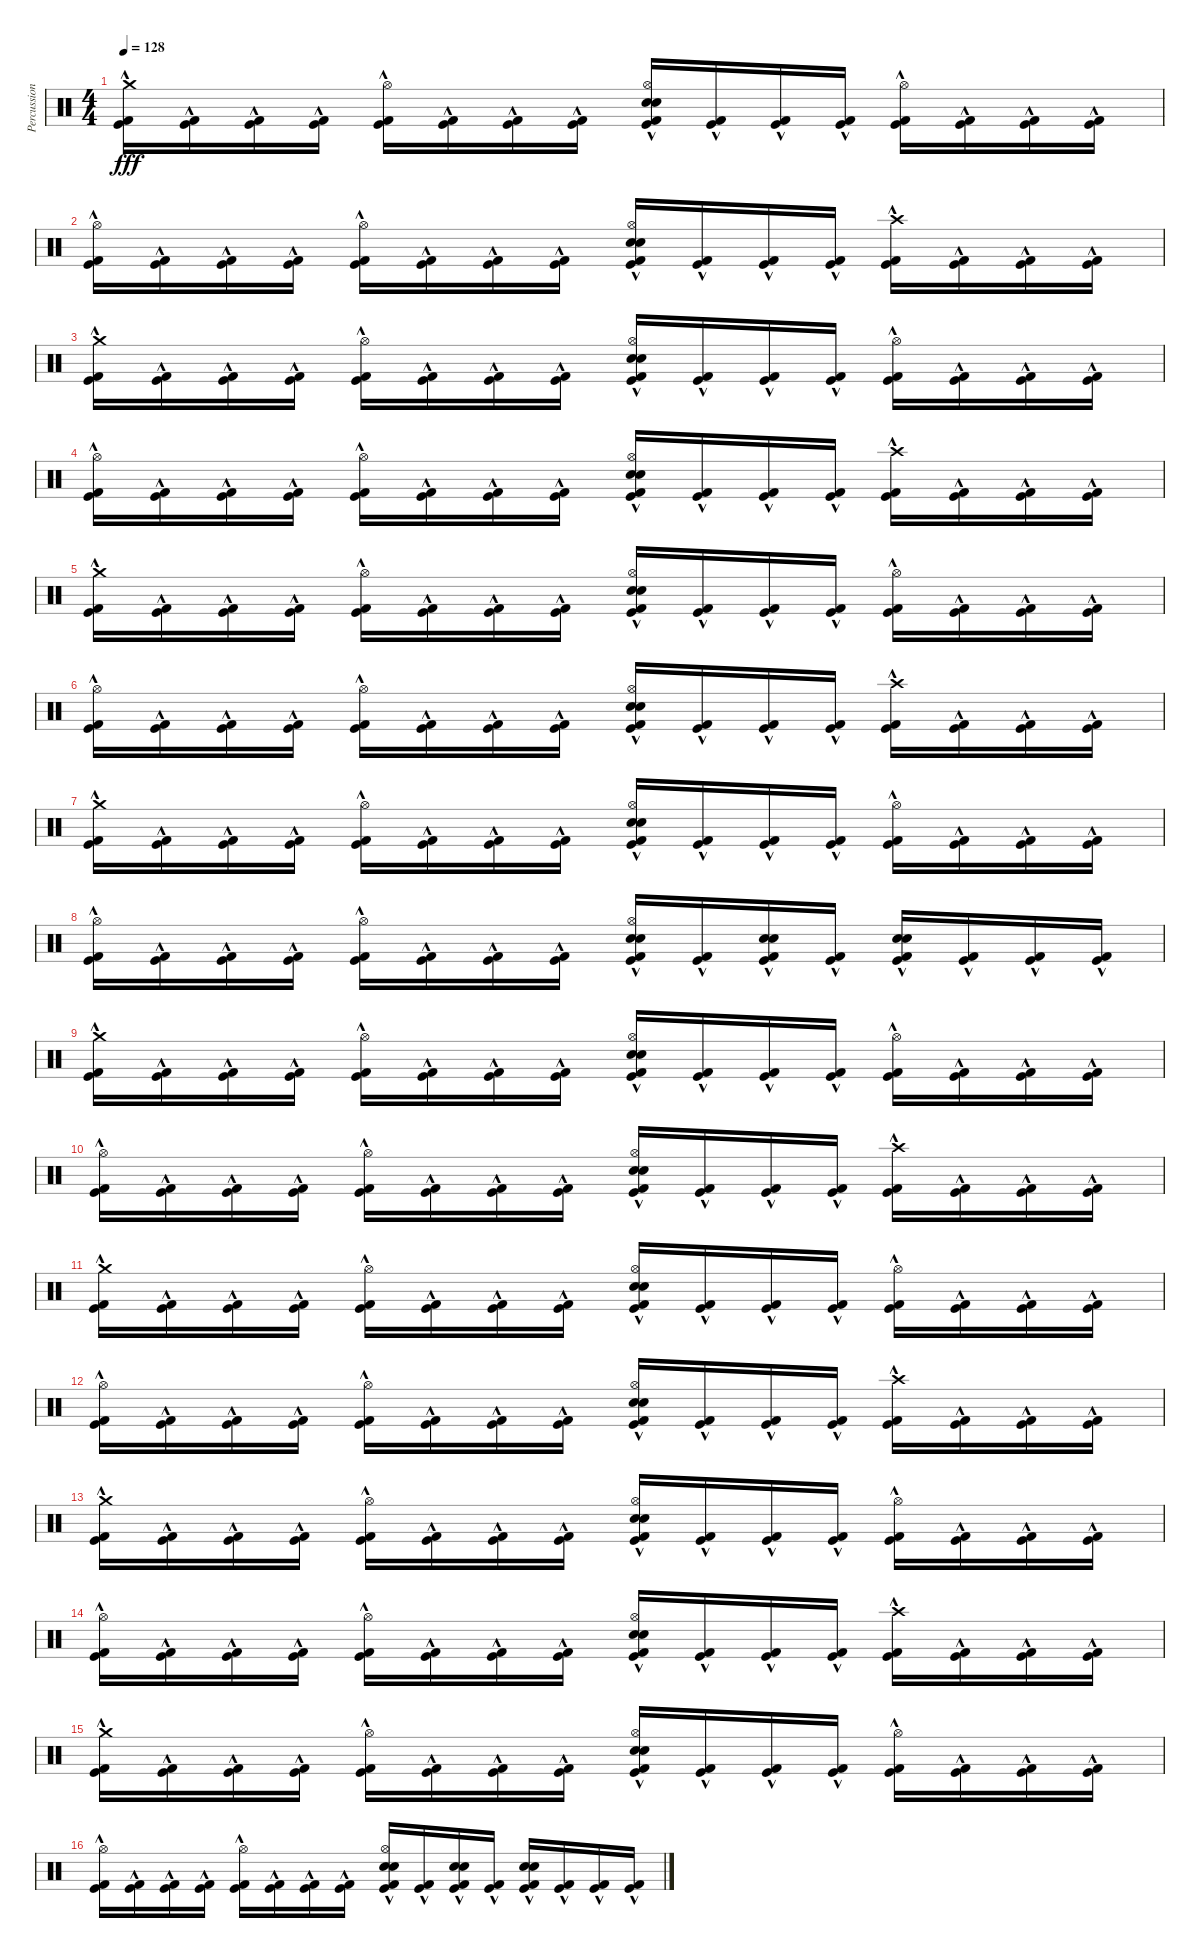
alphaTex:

\track ("Percussion" "Percussion") {instrument percussion}
\staff {score}
\articulation defaults
\ts (4 4)
\tempo 128
\clef neutral
\ks c
("Crash medium (hit)"{hac} "Kick (hit)"{hac} "Kick (hit) 2"{hac}).16{dy fff} ("Kick (hit)"{hac} "Kick (hit) 2"{hac}).16 ("Kick (hit)"{hac} "Kick (hit) 2"{hac}).16 ("Kick (hit)"{hac} "Kick (hit) 2"{hac}).16 ("Hi-Hat (open)"{hac} "Kick (hit)"{hac} "Kick (hit) 2"{hac}).16 ("Kick (hit)"{hac} "Kick (hit) 2"{hac}).16 ("Kick (hit)"{hac} "Kick (hit) 2"{hac}).16 ("Kick (hit)"{hac} "Kick (hit) 2"{hac}).16 ("Hi-Hat (open)"{hac} "Electric Snare (hit)"{hac} "Snare (hit) 2"{hac} "Kick (hit)"{hac} "Kick (hit) 2"{hac}).16 ("Kick (hit)"{hac} "Kick (hit) 2"{hac}).16 ("Kick (hit)"{hac} "Kick (hit) 2"{hac}).16 ("Kick (hit)"{hac} "Kick (hit) 2"{hac}).16 ("Hi-Hat (open)"{hac} "Kick (hit)"{hac} "Kick (hit) 2"{hac}).16 ("Kick (hit)"{hac} "Kick (hit) 2"{hac}).16 ("Kick (hit)"{hac} "Kick (hit) 2"{hac}).16 ("Kick (hit)"{hac} "Kick (hit) 2"{hac}).16 |
("Hi-Hat (open)"{hac} "Kick (hit)"{hac} "Kick (hit) 2"{hac}).16 ("Kick (hit)"{hac} "Kick (hit) 2"{hac}).16 ("Kick (hit)"{hac} "Kick (hit) 2"{hac}).16 ("Kick (hit)"{hac} "Kick (hit) 2"{hac}).16 ("Hi-Hat (open)"{hac} "Kick (hit)"{hac} "Kick (hit) 2"{hac}).16 ("Kick (hit)"{hac} "Kick (hit) 2"{hac}).16 ("Kick (hit)"{hac} "Kick (hit) 2"{hac}).16 ("Kick (hit)"{hac} "Kick (hit) 2"{hac}).16 ("Hi-Hat (open)"{hac} "Electric Snare (hit)"{hac} "Snare (hit) 2"{hac} "Kick (hit)"{hac} "Kick (hit) 2"{hac}).16 ("Kick (hit)"{hac} "Kick (hit) 2"{hac}).16 ("Kick (hit)"{hac} "Kick (hit) 2"{hac}).16 ("Kick (hit)"{hac} "Kick (hit) 2"{hac}).16 ("Crash high (hit)"{hac} "Kick (hit)"{hac} "Kick (hit) 2"{hac}).16 ("Kick (hit)"{hac} "Kick (hit) 2"{hac}).16 ("Kick (hit)"{hac} "Kick (hit) 2"{hac}).16 ("Kick (hit)"{hac} "Kick (hit) 2"{hac}).16 |
("Crash medium (hit)"{hac} "Kick (hit)"{hac} "Kick (hit) 2"{hac}).16 ("Kick (hit)"{hac} "Kick (hit) 2"{hac}).16 ("Kick (hit)"{hac} "Kick (hit) 2"{hac}).16 ("Kick (hit)"{hac} "Kick (hit) 2"{hac}).16 ("Hi-Hat (open)"{hac} "Kick (hit)"{hac} "Kick (hit) 2"{hac}).16 ("Kick (hit)"{hac} "Kick (hit) 2"{hac}).16 ("Kick (hit)"{hac} "Kick (hit) 2"{hac}).16 ("Kick (hit)"{hac} "Kick (hit) 2"{hac}).16 ("Hi-Hat (open)"{hac} "Electric Snare (hit)"{hac} "Snare (hit) 2"{hac} "Kick (hit)"{hac} "Kick (hit) 2"{hac}).16 ("Kick (hit)"{hac} "Kick (hit) 2"{hac}).16 ("Kick (hit)"{hac} "Kick (hit) 2"{hac}).16 ("Kick (hit)"{hac} "Kick (hit) 2"{hac}).16 ("Hi-Hat (open)"{hac} "Kick (hit)"{hac} "Kick (hit) 2"{hac}).16 ("Kick (hit)"{hac} "Kick (hit) 2"{hac}).16 ("Kick (hit)"{hac} "Kick (hit) 2"{hac}).16 ("Kick (hit)"{hac} "Kick (hit) 2"{hac}).16 |
("Hi-Hat (open)"{hac} "Kick (hit)"{hac} "Kick (hit) 2"{hac}).16 ("Kick (hit)"{hac} "Kick (hit) 2"{hac}).16 ("Kick (hit)"{hac} "Kick (hit) 2"{hac}).16 ("Kick (hit)"{hac} "Kick (hit) 2"{hac}).16 ("Hi-Hat (open)"{hac} "Kick (hit)"{hac} "Kick (hit) 2"{hac}).16 ("Kick (hit)"{hac} "Kick (hit) 2"{hac}).16 ("Kick (hit)"{hac} "Kick (hit) 2"{hac}).16 ("Kick (hit)"{hac} "Kick (hit) 2"{hac}).16 ("Hi-Hat (open)"{hac} "Electric Snare (hit)"{hac} "Snare (hit) 2"{hac} "Kick (hit)"{hac} "Kick (hit) 2"{hac}).16 ("Kick (hit)"{hac} "Kick (hit) 2"{hac}).16 ("Kick (hit)"{hac} "Kick (hit) 2"{hac}).16 ("Kick (hit)"{hac} "Kick (hit) 2"{hac}).16 ("Crash high (hit)"{hac} "Kick (hit)"{hac} "Kick (hit) 2"{hac}).16 ("Kick (hit)"{hac} "Kick (hit) 2"{hac}).16 ("Kick (hit)"{hac} "Kick (hit) 2"{hac}).16 ("Kick (hit)"{hac} "Kick (hit) 2"{hac}).16 |
("Crash medium (hit)"{hac} "Kick (hit)"{hac} "Kick (hit) 2"{hac}).16 ("Kick (hit)"{hac} "Kick (hit) 2"{hac}).16 ("Kick (hit)"{hac} "Kick (hit) 2"{hac}).16 ("Kick (hit)"{hac} "Kick (hit) 2"{hac}).16 ("Hi-Hat (open)"{hac} "Kick (hit)"{hac} "Kick (hit) 2"{hac}).16 ("Kick (hit)"{hac} "Kick (hit) 2"{hac}).16 ("Kick (hit)"{hac} "Kick (hit) 2"{hac}).16 ("Kick (hit)"{hac} "Kick (hit) 2"{hac}).16 ("Hi-Hat (open)"{hac} "Electric Snare (hit)"{hac} "Snare (hit) 2"{hac} "Kick (hit)"{hac} "Kick (hit) 2"{hac}).16 ("Kick (hit)"{hac} "Kick (hit) 2"{hac}).16 ("Kick (hit)"{hac} "Kick (hit) 2"{hac}).16 ("Kick (hit)"{hac} "Kick (hit) 2"{hac}).16 ("Hi-Hat (open)"{hac} "Kick (hit)"{hac} "Kick (hit) 2"{hac}).16 ("Kick (hit)"{hac} "Kick (hit) 2"{hac}).16 ("Kick (hit)"{hac} "Kick (hit) 2"{hac}).16 ("Kick (hit)"{hac} "Kick (hit) 2"{hac}).16 |
("Hi-Hat (open)"{hac} "Kick (hit)"{hac} "Kick (hit) 2"{hac}).16 ("Kick (hit)"{hac} "Kick (hit) 2"{hac}).16 ("Kick (hit)"{hac} "Kick (hit) 2"{hac}).16 ("Kick (hit)"{hac} "Kick (hit) 2"{hac}).16 ("Hi-Hat (open)"{hac} "Kick (hit)"{hac} "Kick (hit) 2"{hac}).16 ("Kick (hit)"{hac} "Kick (hit) 2"{hac}).16 ("Kick (hit)"{hac} "Kick (hit) 2"{hac}).16 ("Kick (hit)"{hac} "Kick (hit) 2"{hac}).16 ("Hi-Hat (open)"{hac} "Electric Snare (hit)"{hac} "Snare (hit) 2"{hac} "Kick (hit)"{hac} "Kick (hit) 2"{hac}).16 ("Kick (hit)"{hac} "Kick (hit) 2"{hac}).16 ("Kick (hit)"{hac} "Kick (hit) 2"{hac}).16 ("Kick (hit)"{hac} "Kick (hit) 2"{hac}).16 ("Crash high (hit)"{hac} "Kick (hit)"{hac} "Kick (hit) 2"{hac}).16 ("Kick (hit)"{hac} "Kick (hit) 2"{hac}).16 ("Kick (hit)"{hac} "Kick (hit) 2"{hac}).16 ("Kick (hit)"{hac} "Kick (hit) 2"{hac}).16 |
("Crash medium (hit)"{hac} "Kick (hit)"{hac} "Kick (hit) 2"{hac}).16 ("Kick (hit)"{hac} "Kick (hit) 2"{hac}).16 ("Kick (hit)"{hac} "Kick (hit) 2"{hac}).16 ("Kick (hit)"{hac} "Kick (hit) 2"{hac}).16 ("Hi-Hat (open)"{hac} "Kick (hit)"{hac} "Kick (hit) 2"{hac}).16 ("Kick (hit)"{hac} "Kick (hit) 2"{hac}).16 ("Kick (hit)"{hac} "Kick (hit) 2"{hac}).16 ("Kick (hit)"{hac} "Kick (hit) 2"{hac}).16 ("Hi-Hat (open)"{hac} "Electric Snare (hit)"{hac} "Snare (hit) 2"{hac} "Kick (hit)"{hac} "Kick (hit) 2"{hac}).16 ("Kick (hit)"{hac} "Kick (hit) 2"{hac}).16 ("Kick (hit)"{hac} "Kick (hit) 2"{hac}).16 ("Kick (hit)"{hac} "Kick (hit) 2"{hac}).16 ("Hi-Hat (open)"{hac} "Kick (hit)"{hac} "Kick (hit) 2"{hac}).16 ("Kick (hit)"{hac} "Kick (hit) 2"{hac}).16 ("Kick (hit)"{hac} "Kick (hit) 2"{hac}).16 ("Kick (hit)"{hac} "Kick (hit) 2"{hac}).16 |
("Hi-Hat (open)"{hac} "Kick (hit)"{hac} "Kick (hit) 2"{hac}).16 ("Kick (hit)"{hac} "Kick (hit) 2"{hac}).16 ("Kick (hit)"{hac} "Kick (hit) 2"{hac}).16 ("Kick (hit)"{hac} "Kick (hit) 2"{hac}).16 ("Hi-Hat (open)"{hac} "Kick (hit)"{hac} "Kick (hit) 2"{hac}).16 ("Kick (hit)"{hac} "Kick (hit) 2"{hac}).16 ("Kick (hit)"{hac} "Kick (hit) 2"{hac}).16 ("Kick (hit)"{hac} "Kick (hit) 2"{hac}).16 ("Hi-Hat (open)"{hac} "Electric Snare (hit)"{hac} "Snare (hit) 2"{hac} "Kick (hit)"{hac} "Kick (hit) 2"{hac}).16 ("Kick (hit)"{hac} "Kick (hit) 2"{hac}).16 ("Electric Snare (hit)"{hac} "Snare (hit) 2"{hac} "Kick (hit)"{hac} "Kick (hit) 2"{hac}).16 ("Kick (hit)"{hac} "Kick (hit) 2"{hac}).16 ("Electric Snare (hit)"{hac} "Snare (hit) 2"{hac} "Kick (hit)"{hac} "Kick (hit) 2"{hac}).16 ("Kick (hit)"{hac} "Kick (hit) 2"{hac}).16 ("Kick (hit)"{hac} "Kick (hit) 2"{hac}).16 ("Kick (hit)"{hac} "Kick (hit) 2"{hac}).16 |
("Crash medium (hit)"{hac} "Kick (hit)"{hac} "Kick (hit) 2"{hac}).16 ("Kick (hit)"{hac} "Kick (hit) 2"{hac}).16 ("Kick (hit)"{hac} "Kick (hit) 2"{hac}).16 ("Kick (hit)"{hac} "Kick (hit) 2"{hac}).16 ("Hi-Hat (open)"{hac} "Kick (hit)"{hac} "Kick (hit) 2"{hac}).16 ("Kick (hit)"{hac} "Kick (hit) 2"{hac}).16 ("Kick (hit)"{hac} "Kick (hit) 2"{hac}).16 ("Kick (hit)"{hac} "Kick (hit) 2"{hac}).16 ("Hi-Hat (open)"{hac} "Electric Snare (hit)"{hac} "Snare (hit) 2"{hac} "Kick (hit)"{hac} "Kick (hit) 2"{hac}).16 ("Kick (hit)"{hac} "Kick (hit) 2"{hac}).16 ("Kick (hit)"{hac} "Kick (hit) 2"{hac}).16 ("Kick (hit)"{hac} "Kick (hit) 2"{hac}).16 ("Hi-Hat (open)"{hac} "Kick (hit)"{hac} "Kick (hit) 2"{hac}).16 ("Kick (hit)"{hac} "Kick (hit) 2"{hac}).16 ("Kick (hit)"{hac} "Kick (hit) 2"{hac}).16 ("Kick (hit)"{hac} "Kick (hit) 2"{hac}).16 |
("Hi-Hat (open)"{hac} "Kick (hit)"{hac} "Kick (hit) 2"{hac}).16 ("Kick (hit)"{hac} "Kick (hit) 2"{hac}).16 ("Kick (hit)"{hac} "Kick (hit) 2"{hac}).16 ("Kick (hit)"{hac} "Kick (hit) 2"{hac}).16 ("Hi-Hat (open)"{hac} "Kick (hit)"{hac} "Kick (hit) 2"{hac}).16 ("Kick (hit)"{hac} "Kick (hit) 2"{hac}).16 ("Kick (hit)"{hac} "Kick (hit) 2"{hac}).16 ("Kick (hit)"{hac} "Kick (hit) 2"{hac}).16 ("Hi-Hat (open)"{hac} "Electric Snare (hit)"{hac} "Snare (hit) 2"{hac} "Kick (hit)"{hac} "Kick (hit) 2"{hac}).16 ("Kick (hit)"{hac} "Kick (hit) 2"{hac}).16 ("Kick (hit)"{hac} "Kick (hit) 2"{hac}).16 ("Kick (hit)"{hac} "Kick (hit) 2"{hac}).16 ("Crash high (hit)"{hac} "Kick (hit)"{hac} "Kick (hit) 2"{hac}).16 ("Kick (hit)"{hac} "Kick (hit) 2"{hac}).16 ("Kick (hit)"{hac} "Kick (hit) 2"{hac}).16 ("Kick (hit)"{hac} "Kick (hit) 2"{hac}).16 |
("Crash medium (hit)"{hac} "Kick (hit)"{hac} "Kick (hit) 2"{hac}).16 ("Kick (hit)"{hac} "Kick (hit) 2"{hac}).16 ("Kick (hit)"{hac} "Kick (hit) 2"{hac}).16 ("Kick (hit)"{hac} "Kick (hit) 2"{hac}).16 ("Hi-Hat (open)"{hac} "Kick (hit)"{hac} "Kick (hit) 2"{hac}).16 ("Kick (hit)"{hac} "Kick (hit) 2"{hac}).16 ("Kick (hit)"{hac} "Kick (hit) 2"{hac}).16 ("Kick (hit)"{hac} "Kick (hit) 2"{hac}).16 ("Hi-Hat (open)"{hac} "Electric Snare (hit)"{hac} "Snare (hit) 2"{hac} "Kick (hit)"{hac} "Kick (hit) 2"{hac}).16 ("Kick (hit)"{hac} "Kick (hit) 2"{hac}).16 ("Kick (hit)"{hac} "Kick (hit) 2"{hac}).16 ("Kick (hit)"{hac} "Kick (hit) 2"{hac}).16 ("Hi-Hat (open)"{hac} "Kick (hit)"{hac} "Kick (hit) 2"{hac}).16 ("Kick (hit)"{hac} "Kick (hit) 2"{hac}).16 ("Kick (hit)"{hac} "Kick (hit) 2"{hac}).16 ("Kick (hit)"{hac} "Kick (hit) 2"{hac}).16 |
("Hi-Hat (open)"{hac} "Kick (hit)"{hac} "Kick (hit) 2"{hac}).16 ("Kick (hit)"{hac} "Kick (hit) 2"{hac}).16 ("Kick (hit)"{hac} "Kick (hit) 2"{hac}).16 ("Kick (hit)"{hac} "Kick (hit) 2"{hac}).16 ("Hi-Hat (open)"{hac} "Kick (hit)"{hac} "Kick (hit) 2"{hac}).16 ("Kick (hit)"{hac} "Kick (hit) 2"{hac}).16 ("Kick (hit)"{hac} "Kick (hit) 2"{hac}).16 ("Kick (hit)"{hac} "Kick (hit) 2"{hac}).16 ("Hi-Hat (open)"{hac} "Electric Snare (hit)"{hac} "Snare (hit) 2"{hac} "Kick (hit)"{hac} "Kick (hit) 2"{hac}).16 ("Kick (hit)"{hac} "Kick (hit) 2"{hac}).16 ("Kick (hit)"{hac} "Kick (hit) 2"{hac}).16 ("Kick (hit)"{hac} "Kick (hit) 2"{hac}).16 ("Crash high (hit)"{hac} "Kick (hit)"{hac} "Kick (hit) 2"{hac}).16 ("Kick (hit)"{hac} "Kick (hit) 2"{hac}).16 ("Kick (hit)"{hac} "Kick (hit) 2"{hac}).16 ("Kick (hit)"{hac} "Kick (hit) 2"{hac}).16 |
("Crash medium (hit)"{hac} "Kick (hit)"{hac} "Kick (hit) 2"{hac}).16 ("Kick (hit)"{hac} "Kick (hit) 2"{hac}).16 ("Kick (hit)"{hac} "Kick (hit) 2"{hac}).16 ("Kick (hit)"{hac} "Kick (hit) 2"{hac}).16 ("Hi-Hat (open)"{hac} "Kick (hit)"{hac} "Kick (hit) 2"{hac}).16 ("Kick (hit)"{hac} "Kick (hit) 2"{hac}).16 ("Kick (hit)"{hac} "Kick (hit) 2"{hac}).16 ("Kick (hit)"{hac} "Kick (hit) 2"{hac}).16 ("Hi-Hat (open)"{hac} "Electric Snare (hit)"{hac} "Snare (hit) 2"{hac} "Kick (hit)"{hac} "Kick (hit) 2"{hac}).16 ("Kick (hit)"{hac} "Kick (hit) 2"{hac}).16 ("Kick (hit)"{hac} "Kick (hit) 2"{hac}).16 ("Kick (hit)"{hac} "Kick (hit) 2"{hac}).16 ("Hi-Hat (open)"{hac} "Kick (hit)"{hac} "Kick (hit) 2"{hac}).16 ("Kick (hit)"{hac} "Kick (hit) 2"{hac}).16 ("Kick (hit)"{hac} "Kick (hit) 2"{hac}).16 ("Kick (hit)"{hac} "Kick (hit) 2"{hac}).16 |
("Hi-Hat (open)"{hac} "Kick (hit)"{hac} "Kick (hit) 2"{hac}).16 ("Kick (hit)"{hac} "Kick (hit) 2"{hac}).16 ("Kick (hit)"{hac} "Kick (hit) 2"{hac}).16 ("Kick (hit)"{hac} "Kick (hit) 2"{hac}).16 ("Hi-Hat (open)"{hac} "Kick (hit)"{hac} "Kick (hit) 2"{hac}).16 ("Kick (hit)"{hac} "Kick (hit) 2"{hac}).16 ("Kick (hit)"{hac} "Kick (hit) 2"{hac}).16 ("Kick (hit)"{hac} "Kick (hit) 2"{hac}).16 ("Hi-Hat (open)"{hac} "Electric Snare (hit)"{hac} "Snare (hit) 2"{hac} "Kick (hit)"{hac} "Kick (hit) 2"{hac}).16 ("Kick (hit)"{hac} "Kick (hit) 2"{hac}).16 ("Kick (hit)"{hac} "Kick (hit) 2"{hac}).16 ("Kick (hit)"{hac} "Kick (hit) 2"{hac}).16 ("Crash high (hit)"{hac} "Kick (hit)"{hac} "Kick (hit) 2"{hac}).16 ("Kick (hit)"{hac} "Kick (hit) 2"{hac}).16 ("Kick (hit)"{hac} "Kick (hit) 2"{hac}).16 ("Kick (hit)"{hac} "Kick (hit) 2"{hac}).16 |
("Crash medium (hit)"{hac} "Kick (hit)"{hac} "Kick (hit) 2"{hac}).16 ("Kick (hit)"{hac} "Kick (hit) 2"{hac}).16 ("Kick (hit)"{hac} "Kick (hit) 2"{hac}).16 ("Kick (hit)"{hac} "Kick (hit) 2"{hac}).16 ("Hi-Hat (open)"{hac} "Kick (hit)"{hac} "Kick (hit) 2"{hac}).16 ("Kick (hit)"{hac} "Kick (hit) 2"{hac}).16 ("Kick (hit)"{hac} "Kick (hit) 2"{hac}).16 ("Kick (hit)"{hac} "Kick (hit) 2"{hac}).16 ("Hi-Hat (open)"{hac} "Electric Snare (hit)"{hac} "Snare (hit) 2"{hac} "Kick (hit)"{hac} "Kick (hit) 2"{hac}).16 ("Kick (hit)"{hac} "Kick (hit) 2"{hac}).16 ("Kick (hit)"{hac} "Kick (hit) 2"{hac}).16 ("Kick (hit)"{hac} "Kick (hit) 2"{hac}).16 ("Hi-Hat (open)"{hac} "Kick (hit)"{hac} "Kick (hit) 2"{hac}).16 ("Kick (hit)"{hac} "Kick (hit) 2"{hac}).16 ("Kick (hit)"{hac} "Kick (hit) 2"{hac}).16 ("Kick (hit)"{hac} "Kick (hit) 2"{hac}).16 |
("Hi-Hat (open)"{hac} "Kick (hit)"{hac} "Kick (hit) 2"{hac}).16 ("Kick (hit)"{hac} "Kick (hit) 2"{hac}).16 ("Kick (hit)"{hac} "Kick (hit) 2"{hac}).16 ("Kick (hit)"{hac} "Kick (hit) 2"{hac}).16 ("Hi-Hat (open)"{hac} "Kick (hit)"{hac} "Kick (hit) 2"{hac}).16 ("Kick (hit)"{hac} "Kick (hit) 2"{hac}).16 ("Kick (hit)"{hac} "Kick (hit) 2"{hac}).16 ("Kick (hit)"{hac} "Kick (hit) 2"{hac}).16 ("Hi-Hat (open)"{hac} "Electric Snare (hit)"{hac} "Snare (hit) 2"{hac} "Kick (hit)"{hac} "Kick (hit) 2"{hac}).16 ("Kick (hit)"{hac} "Kick (hit) 2"{hac}).16 ("Electric Snare (hit)"{hac} "Snare (hit) 2"{hac} "Kick (hit)"{hac} "Kick (hit) 2"{hac}).16 ("Kick (hit)"{hac} "Kick (hit) 2"{hac}).16 ("Electric Snare (hit)"{hac} "Snare (hit) 2"{hac} "Kick (hit)"{hac} "Kick (hit) 2"{hac}).16 ("Kick (hit)"{hac} "Kick (hit) 2"{hac}).16 ("Kick (hit)"{hac} "Kick (hit) 2"{hac}).16 ("Kick (hit)"{hac} "Kick (hit) 2"{hac}).16
